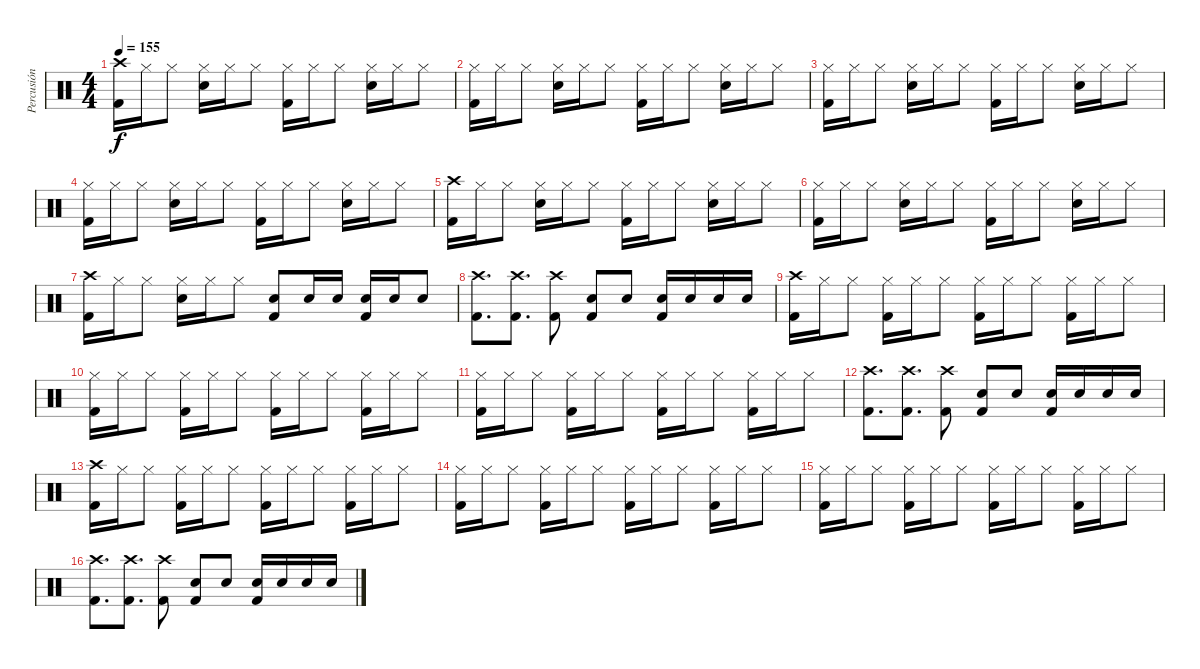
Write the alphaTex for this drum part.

\track ("Percusión" "Percusión") {instrument percussion}
\staff {score}
\articulation defaults
\ts (4 4)
\tempo 155
\clef neutral
\ks c
("Crash high (hit)" "Kick (hit) 2").16{dy f} "Hi-Hat (closed)".16 "Hi-Hat (closed)".8 ("Hi-Hat (closed)" "Electric Snare (hit)").16 "Hi-Hat (closed)".16 "Hi-Hat (closed)".8 ("Hi-Hat (closed)" "Kick (hit) 2").16 "Hi-Hat (closed)".16 "Hi-Hat (closed)".8 ("Hi-Hat (closed)" "Electric Snare (hit)").16 "Hi-Hat (closed)".16 "Hi-Hat (closed)".8 |
("Hi-Hat (closed)" "Kick (hit) 2").16 "Hi-Hat (closed)".16 "Hi-Hat (closed)".8 ("Hi-Hat (closed)" "Electric Snare (hit)").16 "Hi-Hat (closed)".16 "Hi-Hat (closed)".8 ("Hi-Hat (closed)" "Kick (hit) 2").16 "Hi-Hat (closed)".16 "Hi-Hat (closed)".8 ("Hi-Hat (closed)" "Electric Snare (hit)").16 "Hi-Hat (closed)".16 "Hi-Hat (closed)".8 |
("Hi-Hat (closed)" "Kick (hit) 2").16 "Hi-Hat (closed)".16 "Hi-Hat (closed)".8 ("Hi-Hat (closed)" "Electric Snare (hit)").16 "Hi-Hat (closed)".16 "Hi-Hat (closed)".8 ("Hi-Hat (closed)" "Kick (hit) 2").16 "Hi-Hat (closed)".16 "Hi-Hat (closed)".8 ("Hi-Hat (closed)" "Electric Snare (hit)").16 "Hi-Hat (closed)".16 "Hi-Hat (closed)".8 |
("Hi-Hat (closed)" "Kick (hit) 2").16 "Hi-Hat (closed)".16 "Hi-Hat (closed)".8 ("Hi-Hat (closed)" "Electric Snare (hit)").16 "Hi-Hat (closed)".16 "Hi-Hat (closed)".8 ("Hi-Hat (closed)" "Kick (hit) 2").16 "Hi-Hat (closed)".16 "Hi-Hat (closed)".8 ("Hi-Hat (closed)" "Electric Snare (hit)").16 "Hi-Hat (closed)".16 "Hi-Hat (closed)".8 |
("Crash high (hit)" "Kick (hit) 2").16 "Hi-Hat (closed)".16 "Hi-Hat (closed)".8 ("Hi-Hat (closed)" "Electric Snare (hit)").16 "Hi-Hat (closed)".16 "Hi-Hat (closed)".8 ("Hi-Hat (closed)" "Kick (hit) 2").16 "Hi-Hat (closed)".16 "Hi-Hat (closed)".8 ("Hi-Hat (closed)" "Electric Snare (hit)").16 "Hi-Hat (closed)".16 "Hi-Hat (closed)".8 |
("Hi-Hat (closed)" "Kick (hit) 2").16 "Hi-Hat (closed)".16 "Hi-Hat (closed)".8 ("Hi-Hat (closed)" "Electric Snare (hit)").16 "Hi-Hat (closed)".16 "Hi-Hat (closed)".8 ("Hi-Hat (closed)" "Kick (hit) 2").16 "Hi-Hat (closed)".16 "Hi-Hat (closed)".8 ("Hi-Hat (closed)" "Electric Snare (hit)").16 "Hi-Hat (closed)".16 "Hi-Hat (closed)".8 |
("Crash high (hit)" "Kick (hit) 2").16 "Hi-Hat (closed)".16 "Hi-Hat (closed)".8 ("Hi-Hat (closed)" "Electric Snare (hit)").16 "Hi-Hat (closed)".16 "Hi-Hat (closed)".8 ("Electric Snare (hit)" "Kick (hit) 2").8 "Electric Snare (hit)".16 "Electric Snare (hit)".16 ("Electric Snare (hit)" "Kick (hit) 2").16 "Electric Snare (hit)".16 "Electric Snare (hit)".8 |
("Crash high (hit)" "Kick (hit) 2").8{d} ("Crash high (hit)" "Kick (hit) 2").8{d} ("Crash high (hit)" "Kick (hit) 2").8 ("Electric Snare (hit)" "Kick (hit) 2").8 "Electric Snare (hit)".8 ("Electric Snare (hit)" "Kick (hit) 2").16 "Electric Snare (hit)".16 "Electric Snare (hit)".16 "Electric Snare (hit)".16 |
("Crash high (hit)" "Kick (hit) 2").16 "Hi-Hat (closed)".16 "Hi-Hat (closed)".8 ("Hi-Hat (closed)" "Kick (hit) 2").16 "Hi-Hat (closed)".16 "Hi-Hat (closed)".8 ("Hi-Hat (closed)" "Kick (hit) 2").16 "Hi-Hat (closed)".16 "Hi-Hat (closed)".8 ("Hi-Hat (closed)" "Kick (hit) 2").16 "Hi-Hat (closed)".16 "Hi-Hat (closed)".8 |
("Hi-Hat (closed)" "Kick (hit) 2").16 "Hi-Hat (closed)".16 "Hi-Hat (closed)".8 ("Hi-Hat (closed)" "Kick (hit) 2").16 "Hi-Hat (closed)".16 "Hi-Hat (closed)".8 ("Hi-Hat (closed)" "Kick (hit) 2").16 "Hi-Hat (closed)".16 "Hi-Hat (closed)".8 ("Hi-Hat (closed)" "Kick (hit) 2").16 "Hi-Hat (closed)".16 "Hi-Hat (closed)".8 |
("Hi-Hat (closed)" "Kick (hit) 2").16 "Hi-Hat (closed)".16 "Hi-Hat (closed)".8 ("Hi-Hat (closed)" "Kick (hit) 2").16 "Hi-Hat (closed)".16 "Hi-Hat (closed)".8 ("Hi-Hat (closed)" "Kick (hit) 2").16 "Hi-Hat (closed)".16 "Hi-Hat (closed)".8 ("Hi-Hat (closed)" "Kick (hit) 2").16 "Hi-Hat (closed)".16 "Hi-Hat (closed)".8 |
("Crash high (hit)" "Kick (hit) 2").8{d} ("Crash high (hit)" "Kick (hit) 2").8{d} ("Crash high (hit)" "Kick (hit) 2").8 ("Electric Snare (hit)" "Kick (hit) 2").8 "Electric Snare (hit)".8 ("Electric Snare (hit)" "Kick (hit) 2").16 "Electric Snare (hit)".16 "Electric Snare (hit)".16 "Electric Snare (hit)".16 |
("Crash high (hit)" "Kick (hit) 2").16 "Hi-Hat (closed)".16 "Hi-Hat (closed)".8 ("Hi-Hat (closed)" "Kick (hit) 2").16 "Hi-Hat (closed)".16 "Hi-Hat (closed)".8 ("Hi-Hat (closed)" "Kick (hit) 2").16 "Hi-Hat (closed)".16 "Hi-Hat (closed)".8 ("Hi-Hat (closed)" "Kick (hit) 2").16 "Hi-Hat (closed)".16 "Hi-Hat (closed)".8 |
("Hi-Hat (closed)" "Kick (hit) 2").16 "Hi-Hat (closed)".16 "Hi-Hat (closed)".8 ("Hi-Hat (closed)" "Kick (hit) 2").16 "Hi-Hat (closed)".16 "Hi-Hat (closed)".8 ("Hi-Hat (closed)" "Kick (hit) 2").16 "Hi-Hat (closed)".16 "Hi-Hat (closed)".8 ("Hi-Hat (closed)" "Kick (hit) 2").16 "Hi-Hat (closed)".16 "Hi-Hat (closed)".8 |
("Hi-Hat (closed)" "Kick (hit) 2").16 "Hi-Hat (closed)".16 "Hi-Hat (closed)".8 ("Hi-Hat (closed)" "Kick (hit) 2").16 "Hi-Hat (closed)".16 "Hi-Hat (closed)".8 ("Hi-Hat (closed)" "Kick (hit) 2").16 "Hi-Hat (closed)".16 "Hi-Hat (closed)".8 ("Hi-Hat (closed)" "Kick (hit) 2").16 "Hi-Hat (closed)".16 "Hi-Hat (closed)".8 |
("Crash high (hit)" "Kick (hit) 2").8{d} ("Crash high (hit)" "Kick (hit) 2").8{d} ("Crash high (hit)" "Kick (hit) 2").8 ("Electric Snare (hit)" "Kick (hit) 2").8 "Electric Snare (hit)".8 ("Electric Snare (hit)" "Kick (hit) 2").16 "Electric Snare (hit)".16 "Electric Snare (hit)".16 "Electric Snare (hit)".16
